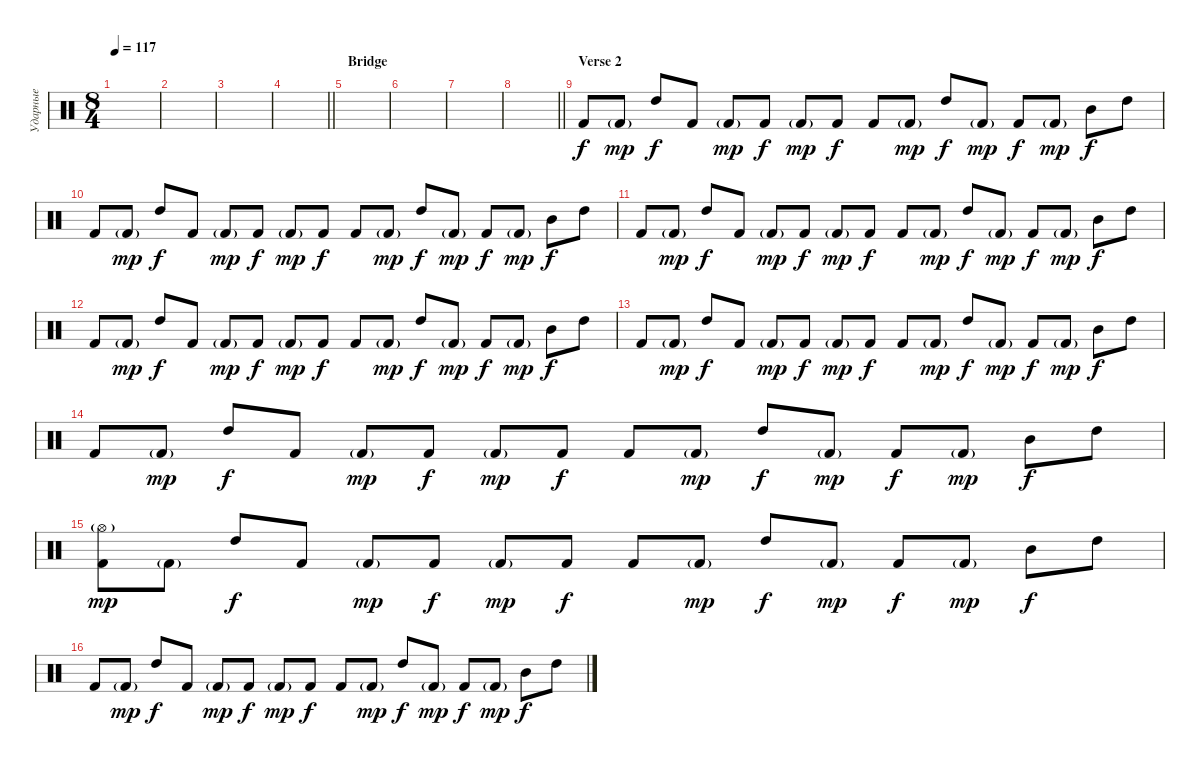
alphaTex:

\track ("Ударные" "Ударные") {instrument percussion}
\staff {score}
\articulation defaults
\ts (8 4)
\tempo 117
\clef neutral
\ks c
|
|
|
\barLineRight lightlight
|
\section ("" "Bridge")
|
|
|
\barLineRight lightlight
|
\section ("" "Verse 2")
"Kick (hit) 2".8 "Kick (hit) 2"{g}.8{dy mp} "High Tom (hit)".8{dy f} "Kick (hit) 2".8 "Kick (hit) 2"{g}.8{dy mp} "Kick (hit) 2".8{dy f} "Kick (hit) 2"{g}.8{dy mp} "Kick (hit) 2".8{dy f} "Kick (hit) 2".8 "Kick (hit) 2"{g}.8{dy mp} "High Tom (hit)".8{dy f} "Kick (hit) 2"{g}.8{dy mp} "Kick (hit) 2".8{dy f} "Kick (hit) 2"{g}.8{dy mp} "Mid Tom (hit)".8{dy f} "High Tom (hit)".8 |
"Kick (hit) 2".8 "Kick (hit) 2"{g}.8{dy mp} "High Tom (hit)".8{dy f} "Kick (hit) 2".8 "Kick (hit) 2"{g}.8{dy mp} "Kick (hit) 2".8{dy f} "Kick (hit) 2"{g}.8{dy mp} "Kick (hit) 2".8{dy f} "Kick (hit) 2".8 "Kick (hit) 2"{g}.8{dy mp} "High Tom (hit)".8{dy f} "Kick (hit) 2"{g}.8{dy mp} "Kick (hit) 2".8{dy f} "Kick (hit) 2"{g}.8{dy mp} "Mid Tom (hit)".8{dy f} "High Tom (hit)".8 |
"Kick (hit) 2".8 "Kick (hit) 2"{g}.8{dy mp} "High Tom (hit)".8{dy f} "Kick (hit) 2".8 "Kick (hit) 2"{g}.8{dy mp} "Kick (hit) 2".8{dy f} "Kick (hit) 2"{g}.8{dy mp} "Kick (hit) 2".8{dy f} "Kick (hit) 2".8 "Kick (hit) 2"{g}.8{dy mp} "High Tom (hit)".8{dy f} "Kick (hit) 2"{g}.8{dy mp} "Kick (hit) 2".8{dy f} "Kick (hit) 2"{g}.8{dy mp} "Mid Tom (hit)".8{dy f} "High Tom (hit)".8 |
"Kick (hit) 2".8 "Kick (hit) 2"{g}.8{dy mp} "High Tom (hit)".8{dy f} "Kick (hit) 2".8 "Kick (hit) 2"{g}.8{dy mp} "Kick (hit) 2".8{dy f} "Kick (hit) 2"{g}.8{dy mp} "Kick (hit) 2".8{dy f} "Kick (hit) 2".8 "Kick (hit) 2"{g}.8{dy mp} "High Tom (hit)".8{dy f} "Kick (hit) 2"{g}.8{dy mp} "Kick (hit) 2".8{dy f} "Kick (hit) 2"{g}.8{dy mp} "Mid Tom (hit)".8{dy f} "High Tom (hit)".8 |
"Kick (hit) 2".8 "Kick (hit) 2"{g}.8{dy mp} "High Tom (hit)".8{dy f} "Kick (hit) 2".8 "Kick (hit) 2"{g}.8{dy mp} "Kick (hit) 2".8{dy f} "Kick (hit) 2"{g}.8{dy mp} "Kick (hit) 2".8{dy f} "Kick (hit) 2".8 "Kick (hit) 2"{g}.8{dy mp} "High Tom (hit)".8{dy f} "Kick (hit) 2"{g}.8{dy mp} "Kick (hit) 2".8{dy f} "Kick (hit) 2"{g}.8{dy mp} "Mid Tom (hit)".8{dy f} "High Tom (hit)".8 |
"Kick (hit) 2".8 "Kick (hit) 2"{g}.8{dy mp} "High Tom (hit)".8{dy f} "Kick (hit) 2".8 "Kick (hit) 2"{g}.8{dy mp} "Kick (hit) 2".8{dy f} "Kick (hit) 2"{g}.8{dy mp} "Kick (hit) 2".8{dy f} "Kick (hit) 2".8 "Kick (hit) 2"{g}.8{dy mp} "High Tom (hit)".8{dy f} "Kick (hit) 2"{g}.8{dy mp} "Kick (hit) 2".8{dy f} "Kick (hit) 2"{g}.8{dy mp} "Mid Tom (hit)".8{dy f} "High Tom (hit)".8 |
("Hi-Hat (open)"{g} "Kick (hit) 2").8{dy mp} "Kick (hit) 2"{g}.8 "High Tom (hit)".8{dy f} "Kick (hit) 2".8 "Kick (hit) 2"{g}.8{dy mp} "Kick (hit) 2".8{dy f} "Kick (hit) 2"{g}.8{dy mp} "Kick (hit) 2".8{dy f} "Kick (hit) 2".8 "Kick (hit) 2"{g}.8{dy mp} "High Tom (hit)".8{dy f} "Kick (hit) 2"{g}.8{dy mp} "Kick (hit) 2".8{dy f} "Kick (hit) 2"{g}.8{dy mp} "Mid Tom (hit)".8{dy f} "High Tom (hit)".8 |
"Kick (hit) 2".8 "Kick (hit) 2"{g}.8{dy mp} "High Tom (hit)".8{dy f} "Kick (hit) 2".8 "Kick (hit) 2"{g}.8{dy mp} "Kick (hit) 2".8{dy f} "Kick (hit) 2"{g}.8{dy mp} "Kick (hit) 2".8{dy f} "Kick (hit) 2".8 "Kick (hit) 2"{g}.8{dy mp} "High Tom (hit)".8{dy f} "Kick (hit) 2"{g}.8{dy mp} "Kick (hit) 2".8{dy f} "Kick (hit) 2"{g}.8{dy mp} "Mid Tom (hit)".8{dy f} "High Tom (hit)".8
